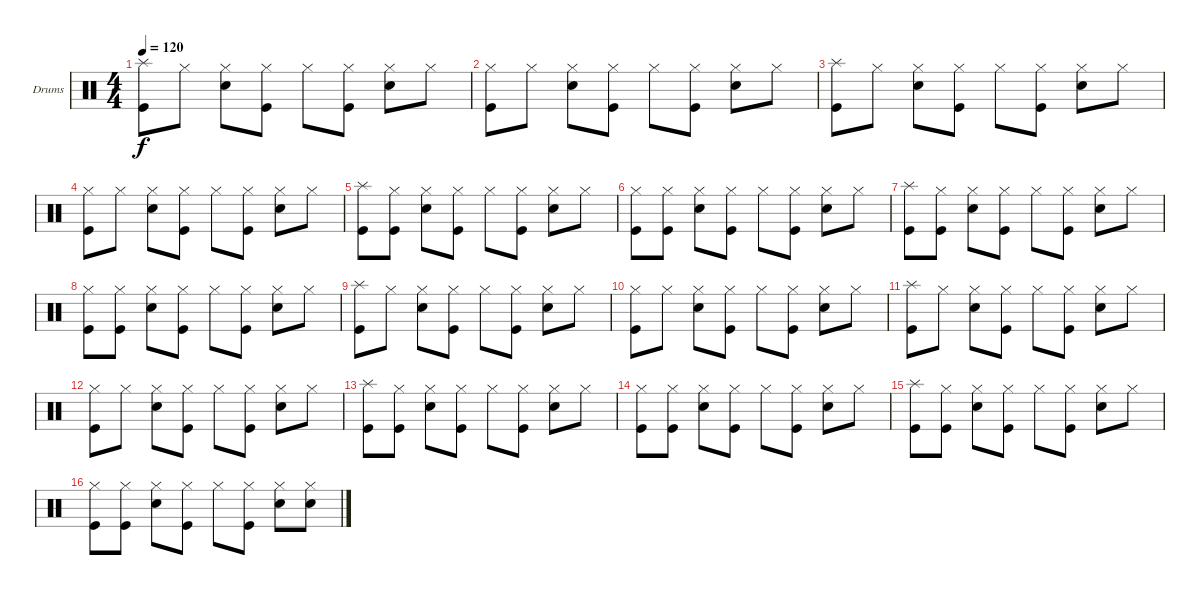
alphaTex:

\defaultSystemsLayout 4
\bracketExtendMode groupsimilarinstruments
\firstSystemTrackNameOrientation horizontal
\otherSystemsTrackNameOrientation horizontal
\track ("Drumkit" "Drums") {instrument percussion}
\staff {score}
\articulation defaults
\ts (4 4)
\tempo 120
\clef neutral
\ks c
("Kick (hit)" "Splash (hit)").8{dy f} "Hi-Hat (closed)".8 ("Snare (hit) 2" "Hi-Hat (closed)").8 ("Kick (hit)" "Hi-Hat (closed)").8 "Hi-Hat (closed)".8 ("Kick (hit)" "Hi-Hat (closed)").8 ("Snare (hit) 2" "Hi-Hat (closed)").8 "Hi-Hat (closed)".8 |
("Kick (hit)" "Hi-Hat (closed)").8 "Hi-Hat (closed)".8 ("Snare (hit) 2" "Hi-Hat (closed)").8 ("Kick (hit)" "Hi-Hat (closed)").8 "Hi-Hat (closed)".8 ("Kick (hit)" "Hi-Hat (closed)").8 ("Snare (hit) 2" "Hi-Hat (closed)").8 "Hi-Hat (closed)".8 |
("Kick (hit)" "Splash (hit)").8 "Hi-Hat (closed)".8 ("Snare (hit) 2" "Hi-Hat (closed)").8 ("Kick (hit)" "Hi-Hat (closed)").8 "Hi-Hat (closed)".8 ("Kick (hit)" "Hi-Hat (closed)").8 ("Snare (hit) 2" "Hi-Hat (closed)").8 "Hi-Hat (closed)".8 |
("Kick (hit)" "Hi-Hat (closed)").8 "Hi-Hat (closed)".8 ("Snare (hit) 2" "Hi-Hat (closed)").8 ("Kick (hit)" "Hi-Hat (closed)").8 "Hi-Hat (closed)".8 ("Kick (hit)" "Hi-Hat (closed)").8 ("Snare (hit) 2" "Hi-Hat (closed)").8 "Hi-Hat (closed)".8 |
("Kick (hit)" "Splash (hit)").8 ("Hi-Hat (closed)" "Kick (hit)").8 ("Snare (hit) 2" "Hi-Hat (closed)").8 ("Kick (hit)" "Hi-Hat (closed)").8 "Hi-Hat (closed)".8 ("Kick (hit)" "Hi-Hat (closed)").8 ("Snare (hit) 2" "Hi-Hat (closed)").8 "Hi-Hat (closed)".8 |
("Kick (hit)" "Hi-Hat (closed)").8 ("Hi-Hat (closed)" "Kick (hit)").8 ("Snare (hit) 2" "Hi-Hat (closed)").8 ("Kick (hit)" "Hi-Hat (closed)").8 "Hi-Hat (closed)".8 ("Kick (hit)" "Hi-Hat (closed)").8 ("Snare (hit) 2" "Hi-Hat (closed)").8 "Hi-Hat (closed)".8 |
("Kick (hit)" "Splash (hit)").8 ("Hi-Hat (closed)" "Kick (hit)").8 ("Snare (hit) 2" "Hi-Hat (closed)").8 ("Kick (hit)" "Hi-Hat (closed)").8 "Hi-Hat (closed)".8 ("Kick (hit)" "Hi-Hat (closed)").8 ("Snare (hit) 2" "Hi-Hat (closed)").8 "Hi-Hat (closed)".8 |
("Kick (hit)" "Hi-Hat (closed)").8 ("Hi-Hat (closed)" "Kick (hit)").8 ("Snare (hit) 2" "Hi-Hat (closed)").8 ("Kick (hit)" "Hi-Hat (closed)").8 "Hi-Hat (closed)".8 ("Kick (hit)" "Hi-Hat (closed)").8 ("Snare (hit) 2" "Hi-Hat (closed)").8 "Hi-Hat (closed)".8 |
("Kick (hit)" "Splash (hit)").8 "Hi-Hat (closed)".8 ("Snare (hit) 2" "Hi-Hat (closed)").8 ("Kick (hit)" "Hi-Hat (closed)").8 "Hi-Hat (closed)".8 ("Kick (hit)" "Hi-Hat (closed)").8 ("Snare (hit) 2" "Hi-Hat (closed)").8 "Hi-Hat (closed)".8 |
("Kick (hit)" "Hi-Hat (closed)").8 "Hi-Hat (closed)".8 ("Snare (hit) 2" "Hi-Hat (closed)").8 ("Kick (hit)" "Hi-Hat (closed)").8 "Hi-Hat (closed)".8 ("Kick (hit)" "Hi-Hat (closed)").8 ("Snare (hit) 2" "Hi-Hat (closed)").8 "Hi-Hat (closed)".8 |
("Kick (hit)" "Splash (hit)").8 "Hi-Hat (closed)".8 ("Snare (hit) 2" "Hi-Hat (closed)").8 ("Kick (hit)" "Hi-Hat (closed)").8 "Hi-Hat (closed)".8 ("Kick (hit)" "Hi-Hat (closed)").8 ("Snare (hit) 2" "Hi-Hat (closed)").8 "Hi-Hat (closed)".8 |
("Kick (hit)" "Hi-Hat (closed)").8 "Hi-Hat (closed)".8 ("Snare (hit) 2" "Hi-Hat (closed)").8 ("Kick (hit)" "Hi-Hat (closed)").8 "Hi-Hat (closed)".8 ("Kick (hit)" "Hi-Hat (closed)").8 ("Snare (hit) 2" "Hi-Hat (closed)").8 "Hi-Hat (closed)".8 |
("Kick (hit)" "Splash (hit)").8 ("Hi-Hat (closed)" "Kick (hit)").8 ("Snare (hit) 2" "Hi-Hat (closed)").8 ("Kick (hit)" "Hi-Hat (closed)").8 "Hi-Hat (closed)".8 ("Kick (hit)" "Hi-Hat (closed)").8 ("Snare (hit) 2" "Hi-Hat (closed)").8 "Hi-Hat (closed)".8 |
("Kick (hit)" "Hi-Hat (closed)").8 ("Hi-Hat (closed)" "Kick (hit)").8 ("Snare (hit) 2" "Hi-Hat (closed)").8 ("Kick (hit)" "Hi-Hat (closed)").8 "Hi-Hat (closed)".8 ("Kick (hit)" "Hi-Hat (closed)").8 ("Snare (hit) 2" "Hi-Hat (closed)").8 "Hi-Hat (closed)".8 |
("Kick (hit)" "Splash (hit)").8 ("Hi-Hat (closed)" "Kick (hit)").8 ("Snare (hit) 2" "Hi-Hat (closed)").8 ("Kick (hit)" "Hi-Hat (closed)").8 "Hi-Hat (closed)".8 ("Kick (hit)" "Hi-Hat (closed)").8 ("Snare (hit) 2" "Hi-Hat (closed)").8 "Hi-Hat (closed)".8 |
("Kick (hit)" "Hi-Hat (closed)").8 ("Hi-Hat (closed)" "Kick (hit)").8 ("Snare (hit) 2" "Hi-Hat (closed)").8 ("Kick (hit)" "Hi-Hat (closed)").8 "Hi-Hat (closed)".8 ("Kick (hit)" "Hi-Hat (closed)").8 ("Snare (hit) 2" "Hi-Hat (closed)").8 ("Hi-Hat (closed)" "Snare (hit) 2").8
